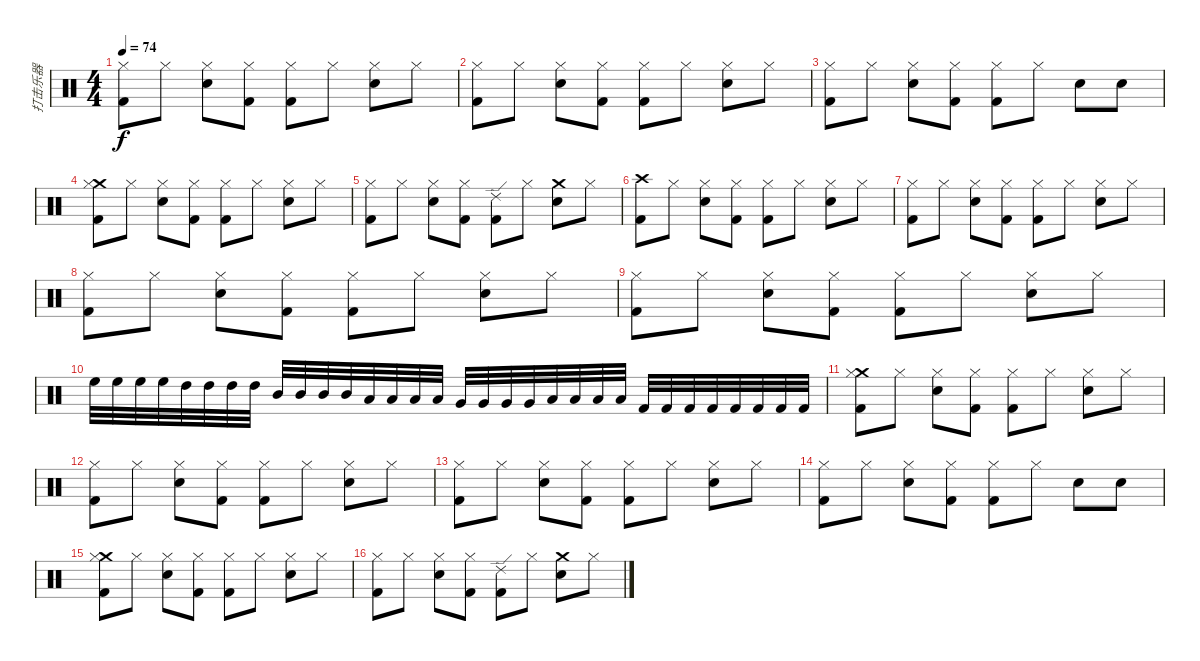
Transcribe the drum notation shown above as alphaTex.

\track ("打击乐器" "打击乐器") {instrument percussion}
\staff {score}
\articulation defaults
\ts (4 4)
\tempo 74
\clef neutral
\ks c
("Hi-Hat (closed)" "Kick (hit) 2").8{dy f} "Hi-Hat (closed)".8 ("Electric Snare (hit)" "Hi-Hat (closed)").8 ("Kick (hit) 2" "Hi-Hat (closed)").8 ("Kick (hit) 2" "Hi-Hat (closed)").8 "Hi-Hat (closed)".8 ("Electric Snare (hit)" "Hi-Hat (closed)").8 "Hi-Hat (closed)".8 |
("Hi-Hat (closed)" "Kick (hit) 2").8 "Hi-Hat (closed)".8 ("Electric Snare (hit)" "Hi-Hat (closed)").8 ("Kick (hit) 2" "Hi-Hat (closed)").8 ("Kick (hit) 2" "Hi-Hat (closed)").8 "Hi-Hat (closed)".8 ("Electric Snare (hit)" "Hi-Hat (closed)").8 "Hi-Hat (closed)".8 |
("Hi-Hat (closed)" "Kick (hit) 2").8 "Hi-Hat (closed)".8 ("Electric Snare (hit)" "Hi-Hat (closed)").8 ("Kick (hit) 2" "Hi-Hat (closed)").8 ("Kick (hit) 2" "Hi-Hat (closed)").8 "Hi-Hat (closed)".8 "Electric Snare (hit)".8 "Electric Snare (hit)".8 |
("Crash medium (hit)" "Hi-Hat (closed)" "Kick (hit) 2").8 "Hi-Hat (closed)".8 ("Electric Snare (hit)" "Hi-Hat (closed)").8 ("Kick (hit) 2" "Hi-Hat (closed)").8 ("Kick (hit) 2" "Hi-Hat (closed)").8 "Hi-Hat (closed)".8 ("Electric Snare (hit)" "Hi-Hat (closed)").8 "Hi-Hat (closed)".8 |
("Hi-Hat (closed)" "Kick (hit) 2").8 "Hi-Hat (closed)".8 ("Electric Snare (hit)" "Hi-Hat (closed)").8 ("Kick (hit) 2" "Hi-Hat (closed)").8 ("Kick (hit) 2" "Ride (edge) 2").8 "Hi-Hat (closed)".8 ("Electric Snare (hit)" "Crash medium (hit)").8 "Hi-Hat (closed)".8 |
("Crash high (hit)" "Kick (hit) 2").8 "Hi-Hat (closed)".8 ("Electric Snare (hit)" "Hi-Hat (closed)").8 ("Kick (hit) 2" "Hi-Hat (closed)").8 ("Kick (hit) 2" "Hi-Hat (closed)").8 "Hi-Hat (closed)".8 ("Electric Snare (hit)" "Hi-Hat (closed)").8 "Hi-Hat (closed)".8 |
("Hi-Hat (closed)" "Kick (hit) 2").8 "Hi-Hat (closed)".8 ("Electric Snare (hit)" "Hi-Hat (closed)").8 ("Kick (hit) 2" "Hi-Hat (closed)").8 ("Kick (hit) 2" "Hi-Hat (closed)").8 "Hi-Hat (closed)".8 ("Electric Snare (hit)" "Hi-Hat (closed)").8 "Hi-Hat (closed)".8 |
("Hi-Hat (closed)" "Kick (hit) 2").8 "Hi-Hat (closed)".8 ("Electric Snare (hit)" "Hi-Hat (closed)").8 ("Kick (hit) 2" "Hi-Hat (closed)").8 ("Kick (hit) 2" "Hi-Hat (closed)").8 "Hi-Hat (closed)".8 ("Electric Snare (hit)" "Hi-Hat (closed)").8 "Hi-Hat (closed)".8 |
("Hi-Hat (closed)" "Kick (hit) 2").8 "Hi-Hat (closed)".8 ("Electric Snare (hit)" "Hi-Hat (closed)").8 ("Kick (hit) 2" "Hi-Hat (closed)").8 ("Kick (hit) 2" "Hi-Hat (closed)").8 "Hi-Hat (closed)".8 ("Electric Snare (hit)" "Hi-Hat (closed)").8 "Hi-Hat (closed)".8 |
"High Floor Tom (hit)".32 "High Floor Tom (hit)".32 "High Floor Tom (hit)".32 "High Floor Tom (hit)".32 "High Tom (hit)".32 "High Tom (hit)".32 "High Tom (hit)".32 "High Tom (hit)".32 "Mid Tom (hit)".32 "Mid Tom (hit)".32 "Mid Tom (hit)".32 "Mid Tom (hit)".32 "Low Tom (hit)".32 "Low Tom (hit)".32 "Low Tom (hit)".32 "Low Tom (hit)".32 "Very Low Tom (hit)".32 "Very Low Tom (hit)".32 "Very Low Tom (hit)".32 "Very Low Tom (hit)".32 "Low Floor Tom (hit)".32 "Low Floor Tom (hit)".32 "Low Floor Tom (hit)".32 "Low Floor Tom (hit)".32 "Kick (hit) 2".32 "Kick (hit) 2".32 "Kick (hit) 2".32 "Kick (hit) 2".32 "Kick (hit) 2".32 "Kick (hit) 2".32 "Kick (hit) 2".32 "Kick (hit) 2".32 |
("Crash medium (hit)" "Hi-Hat (closed)" "Kick (hit) 2").8 "Hi-Hat (closed)".8 ("Electric Snare (hit)" "Hi-Hat (closed)").8 ("Kick (hit) 2" "Hi-Hat (closed)").8 ("Kick (hit) 2" "Hi-Hat (closed)").8 "Hi-Hat (closed)".8 ("Electric Snare (hit)" "Hi-Hat (closed)").8 "Hi-Hat (closed)".8 |
("Hi-Hat (closed)" "Kick (hit) 2").8 "Hi-Hat (closed)".8 ("Electric Snare (hit)" "Hi-Hat (closed)").8 ("Kick (hit) 2" "Hi-Hat (closed)").8 ("Kick (hit) 2" "Hi-Hat (closed)").8 "Hi-Hat (closed)".8 ("Electric Snare (hit)" "Hi-Hat (closed)").8 "Hi-Hat (closed)".8 |
("Hi-Hat (closed)" "Kick (hit) 2").8 "Hi-Hat (closed)".8 ("Electric Snare (hit)" "Hi-Hat (closed)").8 ("Kick (hit) 2" "Hi-Hat (closed)").8 ("Kick (hit) 2" "Hi-Hat (closed)").8 "Hi-Hat (closed)".8 ("Electric Snare (hit)" "Hi-Hat (closed)").8 "Hi-Hat (closed)".8 |
("Hi-Hat (closed)" "Kick (hit) 2").8 "Hi-Hat (closed)".8 ("Electric Snare (hit)" "Hi-Hat (closed)").8 ("Kick (hit) 2" "Hi-Hat (closed)").8 ("Kick (hit) 2" "Hi-Hat (closed)").8 "Hi-Hat (closed)".8 "Electric Snare (hit)".8 "Electric Snare (hit)".8 |
("Crash medium (hit)" "Hi-Hat (closed)" "Kick (hit) 2").8 "Hi-Hat (closed)".8 ("Electric Snare (hit)" "Hi-Hat (closed)").8 ("Kick (hit) 2" "Hi-Hat (closed)").8 ("Kick (hit) 2" "Hi-Hat (closed)").8 "Hi-Hat (closed)".8 ("Electric Snare (hit)" "Hi-Hat (closed)").8 "Hi-Hat (closed)".8 |
("Hi-Hat (closed)" "Kick (hit) 2").8 "Hi-Hat (closed)".8 ("Electric Snare (hit)" "Hi-Hat (closed)").8 ("Kick (hit) 2" "Hi-Hat (closed)").8 ("Kick (hit) 2" "Ride (edge) 2").8 "Hi-Hat (closed)".8 ("Electric Snare (hit)" "Crash medium (hit)").8 "Hi-Hat (closed)".8
